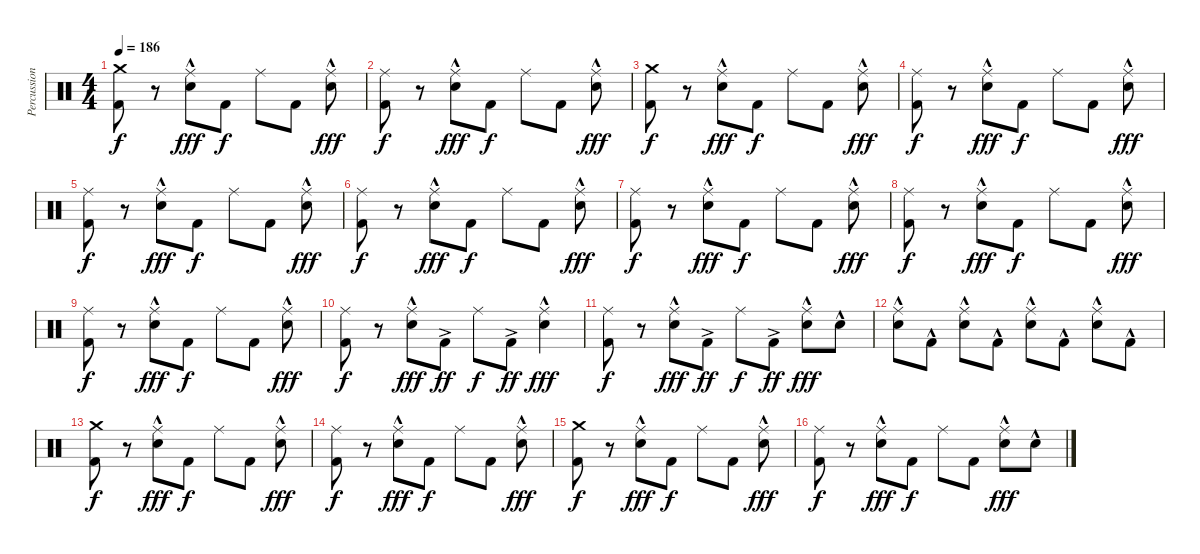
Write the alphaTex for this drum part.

\track ("Percussion" "Percussion") {instrument percussion}
\staff {score}
\articulation defaults
\ts (4 4)
\tempo 186
\clef neutral
\ks c
("Kick (hit) 2" "Crash medium (hit)").8{dy f} r.8 ("Electric Snare (hit)"{hac} "Ride (middle)").8{dy fff} "Kick (hit) 2".8{dy f} "Ride (middle)".8 "Kick (hit) 2".8 ("Electric Snare (hit)"{hac} "Ride (middle)").8{dy fff} |
("Kick (hit) 2" "Ride (middle)").8{dy f} r.8 ("Electric Snare (hit)"{hac} "Ride (middle)").8{dy fff} "Kick (hit) 2".8{dy f} "Ride (middle)".8 "Kick (hit) 2".8 ("Electric Snare (hit)"{hac} "Ride (middle)").8{dy fff} |
("Kick (hit) 2" "Crash medium (hit)").8{dy f} r.8 ("Electric Snare (hit)"{hac} "Ride (middle)").8{dy fff} "Kick (hit) 2".8{dy f} "Ride (middle)".8 "Kick (hit) 2".8 ("Electric Snare (hit)"{hac} "Ride (middle)").8{dy fff} |
("Kick (hit) 2" "Ride (middle)").8{dy f} r.8 ("Electric Snare (hit)"{hac} "Ride (middle)").8{dy fff} "Kick (hit) 2".8{dy f} "Ride (middle)".8 "Kick (hit) 2".8 ("Electric Snare (hit)"{hac} "Ride (middle)").8{dy fff} |
("Kick (hit) 2" "Ride (middle)").8{dy f} r.8 ("Electric Snare (hit)"{hac} "Ride (middle)").8{dy fff} "Kick (hit) 2".8{dy f} "Ride (middle)".8 "Kick (hit) 2".8 ("Electric Snare (hit)"{hac} "Ride (middle)").8{dy fff} |
("Kick (hit) 2" "Ride (middle)").8{dy f} r.8 ("Electric Snare (hit)"{hac} "Ride (middle)").8{dy fff} "Kick (hit) 2".8{dy f} "Ride (middle)".8 "Kick (hit) 2".8 ("Electric Snare (hit)"{hac} "Ride (middle)").8{dy fff} |
("Kick (hit) 2" "Ride (middle)").8{dy f} r.8 ("Electric Snare (hit)"{hac} "Ride (middle)").8{dy fff} "Kick (hit) 2".8{dy f} "Ride (middle)".8 "Kick (hit) 2".8 ("Electric Snare (hit)"{hac} "Ride (middle)").8{dy fff} |
("Kick (hit) 2" "Ride (middle)").8{dy f} r.8 ("Electric Snare (hit)"{hac} "Ride (middle)").8{dy fff} "Kick (hit) 2".8{dy f} "Ride (middle)".8 "Kick (hit) 2".8 ("Electric Snare (hit)"{hac} "Ride (middle)").8{dy fff} |
("Kick (hit) 2" "Ride (middle)").8{dy f} r.8 ("Electric Snare (hit)"{hac} "Ride (middle)").8{dy fff} "Kick (hit) 2".8{dy f} "Ride (middle)".8 "Kick (hit) 2".8 ("Electric Snare (hit)"{hac} "Ride (middle)").8{dy fff} |
("Kick (hit) 2" "Ride (middle)").8{dy f} r.8 ("Electric Snare (hit)"{hac} "Ride (middle)").8{dy fff} "Kick (hit) 2"{ac}.8{dy ff} "Ride (middle)".8{dy f} "Kick (hit) 2"{ac}.8{dy ff} ("Electric Snare (hit)"{hac} "Ride (middle)").4{dy fff} |
("Kick (hit) 2" "Ride (middle)").8{dy f} r.8 ("Electric Snare (hit)"{hac} "Ride (middle)").8{dy fff} "Kick (hit) 2"{ac}.8{dy ff} "Ride (middle)".8{dy f} "Kick (hit) 2"{ac}.8{dy ff} ("Electric Snare (hit)"{hac} "Ride (middle)").8{dy fff} "Electric Snare (hit)"{hac}.8 |
("Ride (middle)"{hac} "Electric Snare (hit)"{hac}).8 "Kick (hit) 2"{hac}.8 ("Ride (middle)"{hac} "Electric Snare (hit)"{hac}).8 "Kick (hit) 2"{hac}.8 ("Ride (middle)"{hac} "Electric Snare (hit)"{hac}).8 "Kick (hit) 2"{hac}.8 ("Ride (middle)"{hac} "Electric Snare (hit)"{hac}).8 "Kick (hit) 2"{hac}.8 |
("Kick (hit) 2" "Crash medium (hit)").8{dy f} r.8 ("Electric Snare (hit)"{hac} "Ride (middle)").8{dy fff} "Kick (hit) 2".8{dy f} "Ride (middle)".8 "Kick (hit) 2".8 ("Electric Snare (hit)"{hac} "Ride (middle)").8{dy fff} |
("Kick (hit) 2" "Ride (middle)").8{dy f} r.8 ("Electric Snare (hit)"{hac} "Ride (middle)").8{dy fff} "Kick (hit) 2".8{dy f} "Ride (middle)".8 "Kick (hit) 2".8 ("Electric Snare (hit)"{hac} "Ride (middle)").8{dy fff} |
("Kick (hit) 2" "Crash medium (hit)").8{dy f} r.8 ("Electric Snare (hit)"{hac} "Ride (middle)").8{dy fff} "Kick (hit) 2".8{dy f} "Ride (middle)".8 "Kick (hit) 2".8 ("Electric Snare (hit)"{hac} "Ride (middle)").8{dy fff} |
("Kick (hit) 2" "Ride (middle)").8{dy f} r.8 ("Electric Snare (hit)"{hac} "Ride (middle)").8{dy fff} "Kick (hit) 2".8{dy f} "Ride (middle)".8 "Kick (hit) 2".8 ("Electric Snare (hit)"{hac} "Ride (middle)").8{dy fff} "Electric Snare (hit)"{hac}.8
